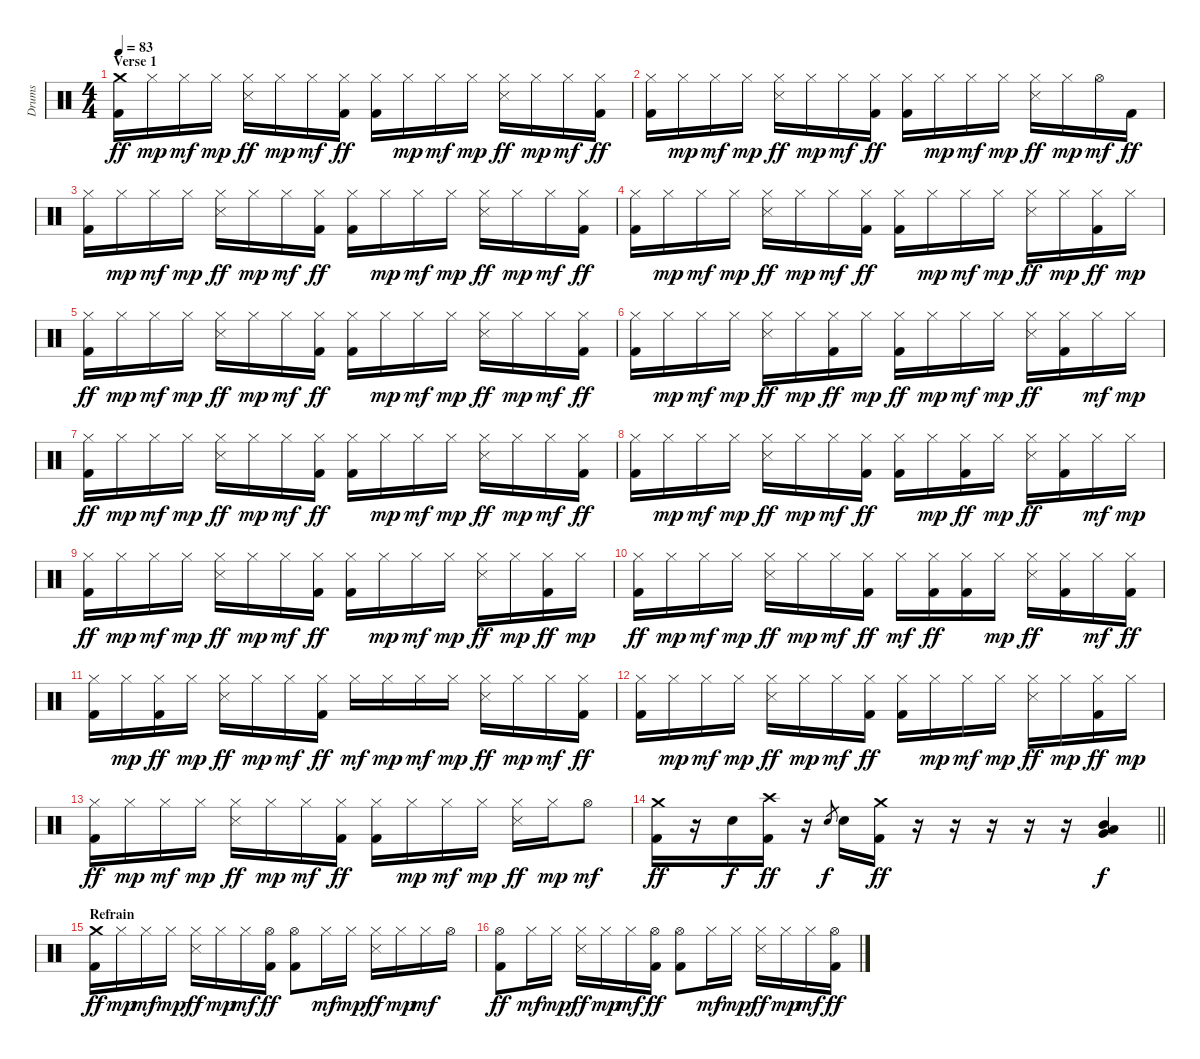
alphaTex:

\track ("Drums" "Drums") {instrument percussion}
\staff {score}
\articulation defaults
\ts (4 4)
\section ("" "Verse 1")
\tempo 83
\clef neutral
\ks c
("Crash medium (hit)" "Kick (hit) 2").16{dy ff} "Hi-Hat (closed)".16{dy mp} "Hi-Hat (closed)".16{dy mf} "Hi-Hat (closed)".16{dy mp} ("Hi-Hat (closed)" "Snare (side stick) 3").16{dy ff} "Hi-Hat (closed)".16{dy mp} "Hi-Hat (closed)".16{dy mf} ("Hi-Hat (closed)" "Kick (hit) 2").16{dy ff} ("Hi-Hat (closed)" "Kick (hit) 2").16 "Hi-Hat (closed)".16{dy mp} "Hi-Hat (closed)".16{dy mf} "Hi-Hat (closed)".16{dy mp} ("Hi-Hat (closed)" "Snare (side stick) 3").16{dy ff} "Hi-Hat (closed)".16{dy mp} "Hi-Hat (closed)".16{dy mf} ("Hi-Hat (closed)" "Kick (hit) 2").16{dy ff} |
("Hi-Hat (closed)" "Kick (hit) 2").16 "Hi-Hat (closed)".16{dy mp} "Hi-Hat (closed)".16{dy mf} "Hi-Hat (closed)".16{dy mp} ("Hi-Hat (closed)" "Snare (side stick) 3").16{dy ff} "Hi-Hat (closed)".16{dy mp} "Hi-Hat (closed)".16{dy mf} ("Hi-Hat (closed)" "Kick (hit) 2").16{dy ff} ("Hi-Hat (closed)" "Kick (hit) 2").16 "Hi-Hat (closed)".16{dy mp} "Hi-Hat (closed)".16{dy mf} "Hi-Hat (closed)".16{dy mp} ("Hi-Hat (closed)" "Snare (side stick) 3").16{dy ff} "Hi-Hat (closed)".16{dy mp} "Hi-Hat (open)".16{dy mf} "Kick (hit) 2".16{dy ff} |
("Hi-Hat (closed)" "Kick (hit) 2").16 "Hi-Hat (closed)".16{dy mp} "Hi-Hat (closed)".16{dy mf} "Hi-Hat (closed)".16{dy mp} ("Hi-Hat (closed)" "Snare (side stick) 3").16{dy ff} "Hi-Hat (closed)".16{dy mp} "Hi-Hat (closed)".16{dy mf} ("Hi-Hat (closed)" "Kick (hit) 2").16{dy ff} ("Hi-Hat (closed)" "Kick (hit) 2").16 "Hi-Hat (closed)".16{dy mp} "Hi-Hat (closed)".16{dy mf} "Hi-Hat (closed)".16{dy mp} ("Hi-Hat (closed)" "Snare (side stick) 3").16{dy ff} "Hi-Hat (closed)".16{dy mp} "Hi-Hat (closed)".16{dy mf} ("Hi-Hat (closed)" "Kick (hit) 2").16{dy ff} |
("Hi-Hat (closed)" "Kick (hit) 2").16 "Hi-Hat (closed)".16{dy mp} "Hi-Hat (closed)".16{dy mf} "Hi-Hat (closed)".16{dy mp} ("Hi-Hat (closed)" "Snare (side stick) 3").16{dy ff} "Hi-Hat (closed)".16{dy mp} "Hi-Hat (closed)".16{dy mf} ("Hi-Hat (closed)" "Kick (hit) 2").16{dy ff} ("Hi-Hat (closed)" "Kick (hit) 2").16 "Hi-Hat (closed)".16{dy mp} "Hi-Hat (closed)".16{dy mf} "Hi-Hat (closed)".16{dy mp} ("Hi-Hat (closed)" "Snare (side stick) 3").16{dy ff} "Hi-Hat (closed)".16{dy mp} ("Hi-Hat (closed)" "Kick (hit) 2").16{dy ff} "Hi-Hat (closed)".16{dy mp} |
("Hi-Hat (closed)" "Kick (hit) 2").16{dy ff} "Hi-Hat (closed)".16{dy mp} "Hi-Hat (closed)".16{dy mf} "Hi-Hat (closed)".16{dy mp} ("Hi-Hat (closed)" "Snare (side stick) 3").16{dy ff} "Hi-Hat (closed)".16{dy mp} "Hi-Hat (closed)".16{dy mf} ("Hi-Hat (closed)" "Kick (hit) 2").16{dy ff} ("Hi-Hat (closed)" "Kick (hit) 2").16 "Hi-Hat (closed)".16{dy mp} "Hi-Hat (closed)".16{dy mf} "Hi-Hat (closed)".16{dy mp} ("Hi-Hat (closed)" "Snare (side stick) 3").16{dy ff} "Hi-Hat (closed)".16{dy mp} "Hi-Hat (closed)".16{dy mf} ("Hi-Hat (closed)" "Kick (hit) 2").16{dy ff} |
("Hi-Hat (closed)" "Kick (hit) 2").16 "Hi-Hat (closed)".16{dy mp} "Hi-Hat (closed)".16{dy mf} "Hi-Hat (closed)".16{dy mp} ("Hi-Hat (closed)" "Snare (side stick) 3").16{dy ff} "Hi-Hat (closed)".16{dy mp} ("Hi-Hat (closed)" "Kick (hit) 2").16{dy ff} "Hi-Hat (closed)".16{dy mp} ("Hi-Hat (closed)" "Kick (hit) 2").16{dy ff} "Hi-Hat (closed)".16{dy mp} "Hi-Hat (closed)".16{dy mf} "Hi-Hat (closed)".16{dy mp} ("Hi-Hat (closed)" "Snare (side stick) 3").16{dy ff} ("Hi-Hat (closed)" "Kick (hit) 2").16 "Hi-Hat (closed)".16{dy mf} "Hi-Hat (closed)".16{dy mp} |
("Hi-Hat (closed)" "Kick (hit) 2").16{dy ff} "Hi-Hat (closed)".16{dy mp} "Hi-Hat (closed)".16{dy mf} "Hi-Hat (closed)".16{dy mp} ("Hi-Hat (closed)" "Snare (side stick) 3").16{dy ff} "Hi-Hat (closed)".16{dy mp} "Hi-Hat (closed)".16{dy mf} ("Hi-Hat (closed)" "Kick (hit) 2").16{dy ff} ("Hi-Hat (closed)" "Kick (hit) 2").16 "Hi-Hat (closed)".16{dy mp} "Hi-Hat (closed)".16{dy mf} "Hi-Hat (closed)".16{dy mp} ("Hi-Hat (closed)" "Snare (side stick) 3").16{dy ff} "Hi-Hat (closed)".16{dy mp} "Hi-Hat (closed)".16{dy mf} ("Hi-Hat (closed)" "Kick (hit) 2").16{dy ff} |
("Hi-Hat (closed)" "Kick (hit) 2").16 "Hi-Hat (closed)".16{dy mp} "Hi-Hat (closed)".16{dy mf} "Hi-Hat (closed)".16{dy mp} ("Hi-Hat (closed)" "Snare (side stick) 3").16{dy ff} "Hi-Hat (closed)".16{dy mp} "Hi-Hat (closed)".16{dy mf} ("Hi-Hat (closed)" "Kick (hit) 2").16{dy ff} ("Hi-Hat (closed)" "Kick (hit) 2").16 "Hi-Hat (closed)".16{dy mp} ("Hi-Hat (closed)" "Kick (hit) 2").16{dy ff} "Hi-Hat (closed)".16{dy mp} ("Hi-Hat (closed)" "Snare (side stick) 3").16{dy ff} ("Hi-Hat (closed)" "Kick (hit) 2").16 "Hi-Hat (closed)".16{dy mf} "Hi-Hat (closed)".16{dy mp} |
("Hi-Hat (closed)" "Kick (hit) 2").16{dy ff} "Hi-Hat (closed)".16{dy mp} "Hi-Hat (closed)".16{dy mf} "Hi-Hat (closed)".16{dy mp} ("Hi-Hat (closed)" "Snare (side stick) 3").16{dy ff} "Hi-Hat (closed)".16{dy mp} "Hi-Hat (closed)".16{dy mf} ("Hi-Hat (closed)" "Kick (hit) 2").16{dy ff} ("Hi-Hat (closed)" "Kick (hit) 2").16 "Hi-Hat (closed)".16{dy mp} "Hi-Hat (closed)".16{dy mf} "Hi-Hat (closed)".16{dy mp} ("Hi-Hat (closed)" "Snare (side stick) 3").16{dy ff} "Hi-Hat (closed)".16{dy mp} ("Hi-Hat (closed)" "Kick (hit) 2").16{dy ff} "Hi-Hat (closed)".16{dy mp} |
("Hi-Hat (closed)" "Kick (hit) 2").16{dy ff} "Hi-Hat (closed)".16{dy mp} "Hi-Hat (closed)".16{dy mf} "Hi-Hat (closed)".16{dy mp} ("Hi-Hat (closed)" "Snare (side stick) 3").16{dy ff} "Hi-Hat (closed)".16{dy mp} "Hi-Hat (closed)".16{dy mf} ("Hi-Hat (closed)" "Kick (hit) 2").16{dy ff} "Hi-Hat (closed)".16{dy mf} ("Hi-Hat (closed)" "Kick (hit) 2").16{dy ff} ("Hi-Hat (closed)" "Kick (hit) 2").16 "Hi-Hat (closed)".16{dy mp} ("Hi-Hat (closed)" "Snare (side stick) 3").16{dy ff} ("Hi-Hat (closed)" "Kick (hit) 2").16 "Hi-Hat (closed)".16{dy mf} ("Hi-Hat (closed)" "Kick (hit) 2").16{dy ff} |
("Hi-Hat (closed)" "Kick (hit) 2").16 "Hi-Hat (closed)".16{dy mp} ("Hi-Hat (closed)" "Kick (hit) 2").16{dy ff} "Hi-Hat (closed)".16{dy mp} ("Hi-Hat (closed)" "Snare (side stick) 3").16{dy ff} "Hi-Hat (closed)".16{dy mp} "Hi-Hat (closed)".16{dy mf} ("Hi-Hat (closed)" "Kick (hit) 2").16{dy ff} "Hi-Hat (closed)".16{dy mf} "Hi-Hat (closed)".16{dy mp} "Hi-Hat (closed)".16{dy mf} "Hi-Hat (closed)".16{dy mp} ("Hi-Hat (closed)" "Snare (side stick) 3").16{dy ff} "Hi-Hat (closed)".16{dy mp} "Hi-Hat (closed)".16{dy mf} ("Hi-Hat (closed)" "Kick (hit) 2").16{dy ff} |
("Hi-Hat (closed)" "Kick (hit) 2").16 "Hi-Hat (closed)".16{dy mp} "Hi-Hat (closed)".16{dy mf} "Hi-Hat (closed)".16{dy mp} ("Hi-Hat (closed)" "Snare (side stick) 3").16{dy ff} "Hi-Hat (closed)".16{dy mp} "Hi-Hat (closed)".16{dy mf} ("Hi-Hat (closed)" "Kick (hit) 2").16{dy ff} ("Hi-Hat (closed)" "Kick (hit) 2").16 "Hi-Hat (closed)".16{dy mp} "Hi-Hat (closed)".16{dy mf} "Hi-Hat (closed)".16{dy mp} ("Hi-Hat (closed)" "Snare (side stick) 3").16{dy ff} "Hi-Hat (closed)".16{dy mp} ("Hi-Hat (closed)" "Kick (hit) 2").16{dy ff} "Hi-Hat (closed)".16{dy mp} |
("Hi-Hat (closed)" "Kick (hit) 2").16{dy ff} "Hi-Hat (closed)".16{dy mp} "Hi-Hat (closed)".16{dy mf} "Hi-Hat (closed)".16{dy mp} ("Hi-Hat (closed)" "Snare (side stick) 3").16{dy ff} "Hi-Hat (closed)".16{dy mp} "Hi-Hat (closed)".16{dy mf} ("Hi-Hat (closed)" "Kick (hit) 2").16{dy ff} ("Hi-Hat (closed)" "Kick (hit) 2").16 "Hi-Hat (closed)".16{dy mp} "Hi-Hat (closed)".16{dy mf} "Hi-Hat (closed)".16{dy mp} ("Hi-Hat (closed)" "Snare (side stick) 3").16{dy ff} "Hi-Hat (closed)".16{dy mp} "Hi-Hat (open)".8{dy mf} |
\barLineRight lightlight
("Crash medium (hit)" "Kick (hit) 2").16{dy ff} r.16 "Electric Snare (hit)".16{dy f} ("Crash high (hit)" "Kick (hit) 2").16{dy ff} r.16 "Electric Snare (hit)".8{gr dy f} "Electric Snare (hit)".16 ("Crash medium (hit)" "Kick (hit) 2").16{dy ff} r.16 r.16 r.16 r.16 r.16 ("Mid Tom (hit)" "Low Tom (hit)" "Very Low Tom (hit)").4{dy f} |
\section ("" "Refrain")
("Crash medium (hit)" "Kick (hit) 2").16{dy ff} "Hi-Hat (closed)".16{dy mp} "Hi-Hat (closed)".16{dy mf} "Hi-Hat (closed)".16{dy mp} ("Hi-Hat (closed)" "Snare (side stick) 3").16{dy ff} "Hi-Hat (closed)".16{dy mp} "Hi-Hat (closed)".16{dy mf} ("Hi-Hat (open)" "Kick (hit) 2").16{dy ff} ("Hi-Hat (open)" "Kick (hit) 2").8 "Hi-Hat (closed)".16{dy mf} "Hi-Hat (closed)".16{dy mp} ("Hi-Hat (closed)" "Snare (side stick) 3").16{dy ff} "Hi-Hat (closed)".16{dy mp} "Hi-Hat (closed)".16{dy mf} "Hi-Hat (open)".16 |
("Hi-Hat (open)" "Kick (hit) 2").8{dy ff} "Hi-Hat (closed)".16{dy mf} "Hi-Hat (closed)".16{dy mp} ("Hi-Hat (closed)" "Snare (side stick) 3").16{dy ff} "Hi-Hat (closed)".16{dy mp} "Hi-Hat (closed)".16{dy mf} ("Hi-Hat (open)" "Kick (hit) 2").16{dy ff} ("Hi-Hat (open)" "Kick (hit) 2").8 "Hi-Hat (closed)".16{dy mf} "Hi-Hat (closed)".16{dy mp} ("Hi-Hat (closed)" "Snare (side stick) 3").16{dy ff} "Hi-Hat (closed)".16{dy mp} "Hi-Hat (closed)".16{dy mf} ("Hi-Hat (open)" "Kick (hit) 2").16{dy ff}
